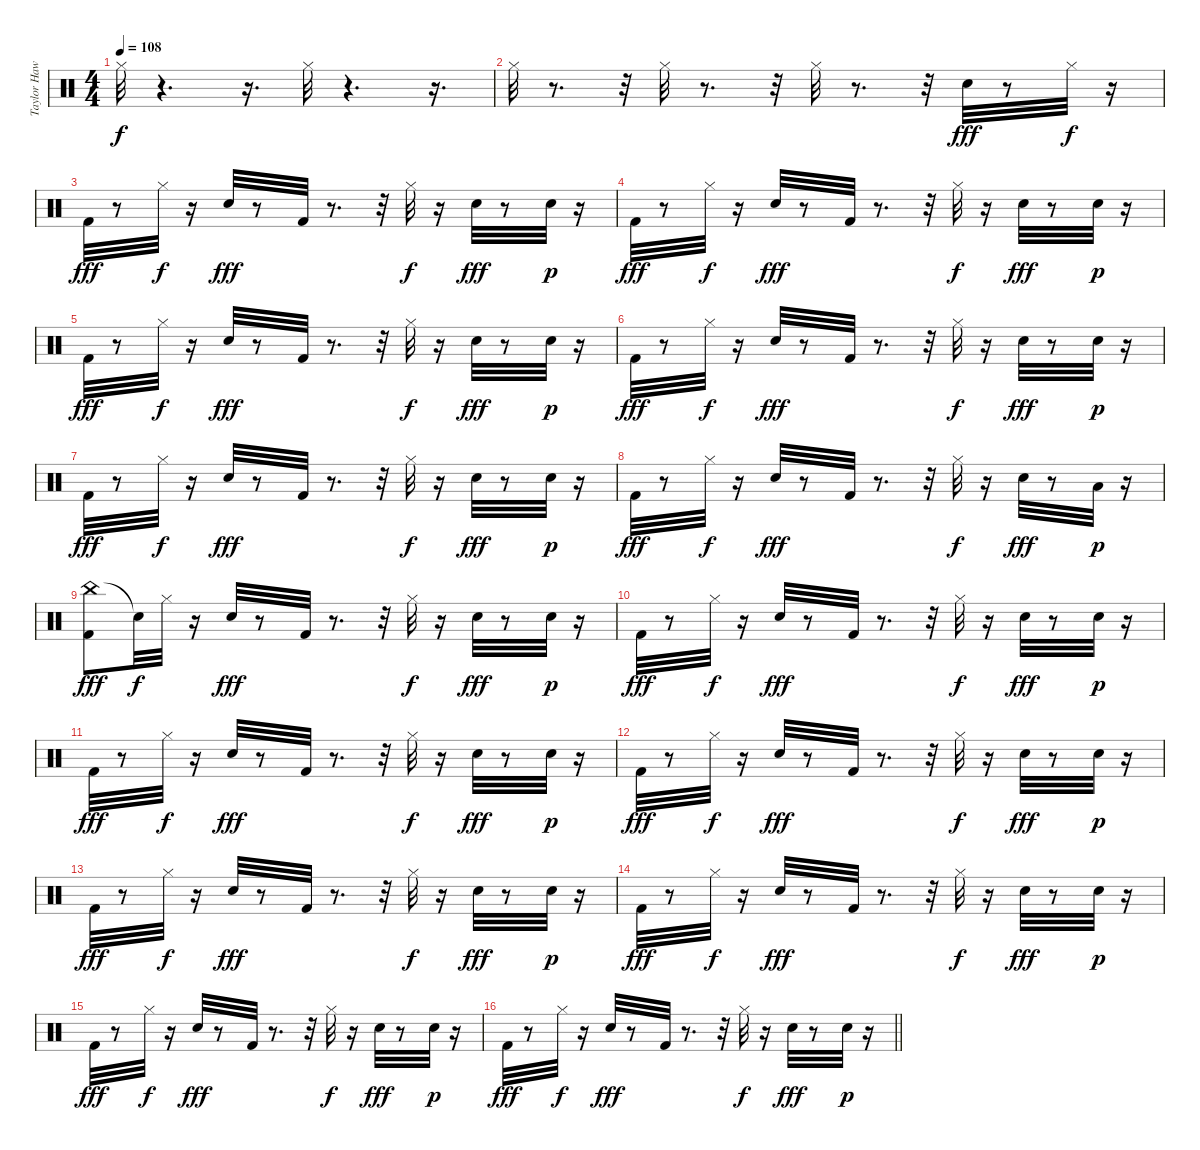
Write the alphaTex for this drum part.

\track ("Taylor Hawkins" "Taylor Haw") {instrument percussion}
\staff {score}
\articulation defaults
\ts (4 4)
\tempo 108
\clef neutral
\ks c "Hi-Hat (closed)".32{dy f}
r.4{d} r.16{d} "Hi-Hat (closed)".32 r.4{d} r.16{d} |
"Hi-Hat (closed)".32 r.8{d} r.32 "Hi-Hat (closed)".32 r.8{d} r.32 "Hi-Hat (closed)".32 r.8{d} r.32 "Snare (hit) 2".32{dy fff} r.8 "Hi-Hat (closed)".32{dy f} r.16 |
"Kick (hit) 2".32{dy fff} r.8 "Hi-Hat (closed)".32{dy f} r.16 "Snare (hit) 2".32{dy fff} r.8 "Kick (hit) 2".32 r.8{d} r.32 "Hi-Hat (closed)".32{dy f} r.16 "Snare (hit) 2".32{dy fff} r.8 "Snare (hit) 2".32{dy p} r.16 |
"Kick (hit) 2".32{dy fff} r.8 "Hi-Hat (closed)".32{dy f} r.16 "Snare (hit) 2".32{dy fff} r.8 "Kick (hit) 2".32 r.8{d} r.32 "Hi-Hat (closed)".32{dy f} r.16 "Snare (hit) 2".32{dy fff} r.8 "Snare (hit) 2".32{dy p} r.16 |
"Kick (hit) 2".32{dy fff} r.8 "Hi-Hat (closed)".32{dy f} r.16 "Snare (hit) 2".32{dy fff} r.8 "Kick (hit) 2".32 r.8{d} r.32 "Hi-Hat (closed)".32{dy f} r.16 "Snare (hit) 2".32{dy fff} r.8 "Snare (hit) 2".32{dy p} r.16 |
"Kick (hit) 2".32{dy fff} r.8 "Hi-Hat (closed)".32{dy f} r.16 "Snare (hit) 2".32{dy fff} r.8 "Kick (hit) 2".32 r.8{d} r.32 "Hi-Hat (closed)".32{dy f} r.16 "Snare (hit) 2".32{dy fff} r.8 "Snare (hit) 2".32{dy p} r.16 |
"Kick (hit) 2".32{dy fff} r.8 "Hi-Hat (closed)".32{dy f} r.16 "Snare (hit) 2".32{dy fff} r.8 "Kick (hit) 2".32 r.8{d} r.32 "Hi-Hat (closed)".32{dy f} r.16 "Snare (hit) 2".32{dy fff} r.8 "Snare (hit) 2".32{dy p} r.16 |
"Kick (hit) 2".32{dy fff} r.8 "Hi-Hat (closed)".32{dy f} r.16 "Snare (hit) 2".32{dy fff} r.8 "Kick (hit) 2".32 r.8{d} r.32 "Hi-Hat (closed)".32{dy f} r.16 "Snare (hit) 2".32{dy fff} r.8 "Low Floor Tom (hit)".32{dy p} r.16 |
("China (hit)" "Kick (hit) 2").8{dy fff} "Snare (hit)"{t}.32{dy f} "Hi-Hat (closed)".32 r.16 "Snare (hit) 2".32{dy fff} r.8 "Kick (hit) 2".32 r.8{d} r.32 "Hi-Hat (closed)".32{dy f} r.16 "Snare (hit) 2".32{dy fff} r.8 "Snare (hit) 2".32{dy p} r.16 |
"Kick (hit) 2".32{dy fff} r.8 "Hi-Hat (closed)".32{dy f} r.16 "Snare (hit) 2".32{dy fff} r.8 "Kick (hit) 2".32 r.8{d} r.32 "Hi-Hat (closed)".32{dy f} r.16 "Snare (hit) 2".32{dy fff} r.8 "Snare (hit) 2".32{dy p} r.16 |
"Kick (hit) 2".32{dy fff} r.8 "Hi-Hat (closed)".32{dy f} r.16 "Snare (hit) 2".32{dy fff} r.8 "Kick (hit) 2".32 r.8{d} r.32 "Hi-Hat (closed)".32{dy f} r.16 "Snare (hit) 2".32{dy fff} r.8 "Snare (hit) 2".32{dy p} r.16 |
"Kick (hit) 2".32{dy fff} r.8 "Hi-Hat (closed)".32{dy f} r.16 "Snare (hit) 2".32{dy fff} r.8 "Kick (hit) 2".32 r.8{d} r.32 "Hi-Hat (closed)".32{dy f} r.16 "Snare (hit) 2".32{dy fff} r.8 "Snare (hit) 2".32{dy p} r.16 |
"Kick (hit) 2".32{dy fff} r.8 "Hi-Hat (closed)".32{dy f} r.16 "Snare (hit) 2".32{dy fff} r.8 "Kick (hit) 2".32 r.8{d} r.32 "Hi-Hat (closed)".32{dy f} r.16 "Snare (hit) 2".32{dy fff} r.8 "Snare (hit) 2".32{dy p} r.16 |
"Kick (hit) 2".32{dy fff} r.8 "Hi-Hat (closed)".32{dy f} r.16 "Snare (hit) 2".32{dy fff} r.8 "Kick (hit) 2".32 r.8{d} r.32 "Hi-Hat (closed)".32{dy f} r.16 "Snare (hit) 2".32{dy fff} r.8 "Snare (hit) 2".32{dy p} r.16 |
"Kick (hit) 2".32{dy fff} r.8 "Hi-Hat (closed)".32{dy f} r.16 "Snare (hit) 2".32{dy fff} r.8 "Kick (hit) 2".32 r.8{d} r.32 "Hi-Hat (closed)".32{dy f} r.16 "Snare (hit) 2".32{dy fff} r.8 "Snare (hit) 2".32{dy p} r.16 |
\barLineRight lightlight "Kick (hit) 2".32{dy fff}
r.8 "Hi-Hat (closed)".32{dy f} r.16 "Snare (hit) 2".32{dy fff} r.8 "Kick (hit) 2".32 r.8{d} r.32 "Hi-Hat (closed)".32{dy f} r.16 "Snare (hit) 2".32{dy fff} r.8 "Snare (hit) 2".32{dy p} r.16
